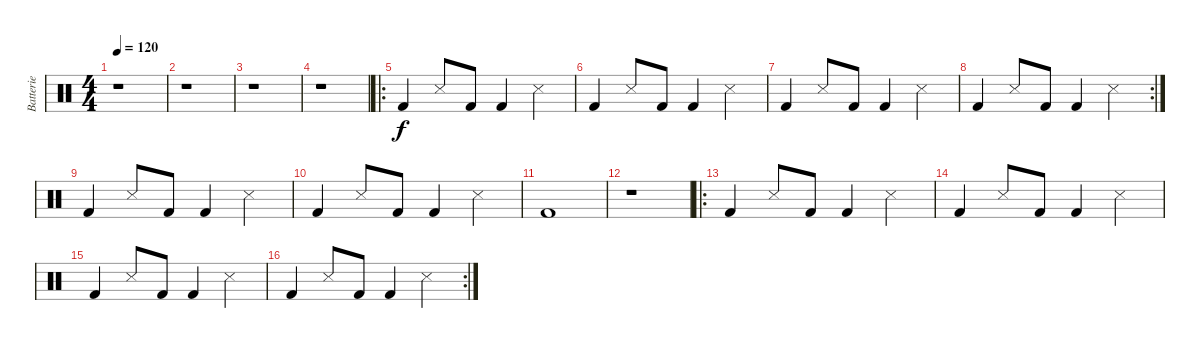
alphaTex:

\track ("Batterie" "Batterie") {instrument percussion}
\staff {score}
\articulation defaults
\ts (4 4)
\tempo 120
\clef neutral
\ks c
r.1{dy f} |
r.1 |
r.1 |
r.1 |
\ro "Kick (hit) 2".4 "Snare (side stick) 3".8 "Kick (hit) 2".8 "Kick (hit) 2".4 "Snare (side stick) 3".4
|
"Kick (hit) 2".4 "Snare (side stick) 3".8 "Kick (hit) 2".8 "Kick (hit) 2".4 "Snare (side stick) 3".4 |
"Kick (hit) 2".4 "Snare (side stick) 3".8 "Kick (hit) 2".8 "Kick (hit) 2".4 "Snare (side stick) 3".4 |
\rc 2 "Kick (hit) 2".4 "Snare (side stick) 3".8 "Kick (hit) 2".8 "Kick (hit) 2".4 "Snare (side stick) 3".4
|
"Kick (hit) 2".4 "Snare (side stick) 3".8 "Kick (hit) 2".8 "Kick (hit) 2".4 "Snare (side stick) 3".4 |
"Kick (hit) 2".4 "Snare (side stick) 3".8 "Kick (hit) 2".8 "Kick (hit) 2".4 "Snare (side stick) 3".4 |
"Kick (hit) 2".1 |
r.1 |
\ro "Kick (hit) 2".4 "Snare (side stick) 3".8 "Kick (hit) 2".8 "Kick (hit) 2".4 "Snare (side stick) 3".4
|
"Kick (hit) 2".4 "Snare (side stick) 3".8 "Kick (hit) 2".8 "Kick (hit) 2".4 "Snare (side stick) 3".4 |
"Kick (hit) 2".4 "Snare (side stick) 3".8 "Kick (hit) 2".8 "Kick (hit) 2".4 "Snare (side stick) 3".4 |
\rc 2 "Kick (hit) 2".4 "Snare (side stick) 3".8 "Kick (hit) 2".8 "Kick (hit) 2".4 "Snare (side stick) 3".4
